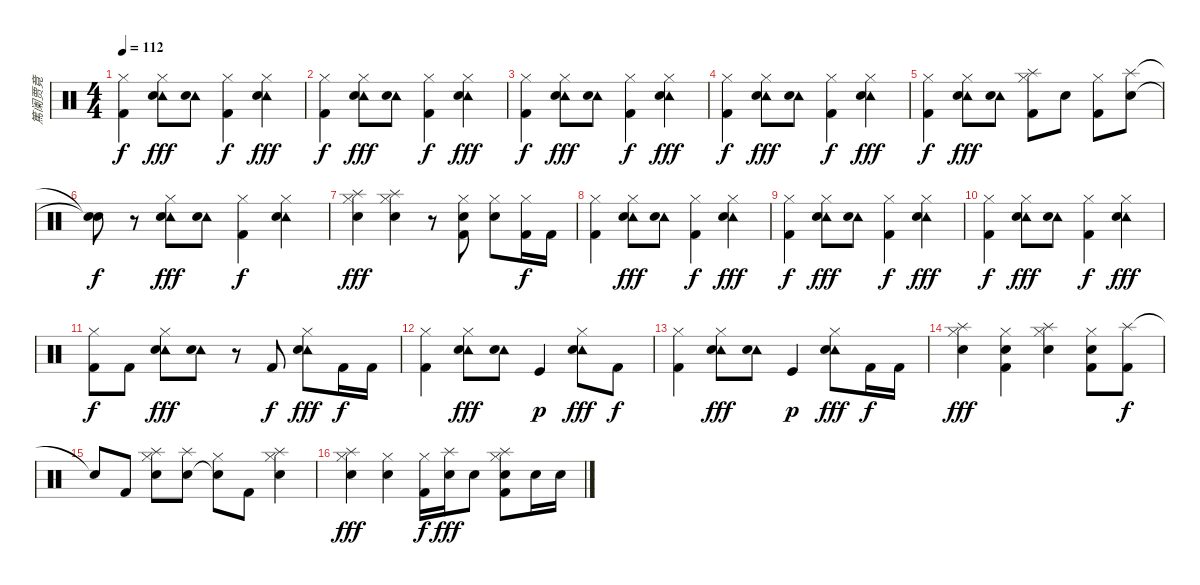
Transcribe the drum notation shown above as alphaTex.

\track ("篤阑贾竟" "篤阑贾竟") {instrument percussion}
\staff {score}
\articulation defaults
\ts (4 4)
\tempo 112
\clef neutral
\ks c
("Hi-Hat (closed)" "Kick (hit) 2").4{dy f} ("Hi-Hat (closed)" "Tambourine (hit)" "Electric Snare (hit)").8{dy fff} ("Tambourine (hit)" "Electric Snare (hit)").8 ("Hi-Hat (closed)" "Kick (hit) 2").4{dy f} ("Hi-Hat (closed)" "Tambourine (hit)" "Electric Snare (hit)").4{dy fff} |
("Hi-Hat (closed)" "Kick (hit) 2").4{dy f} ("Hi-Hat (closed)" "Tambourine (hit)" "Electric Snare (hit)").8{dy fff} ("Tambourine (hit)" "Electric Snare (hit)").8 ("Hi-Hat (closed)" "Kick (hit) 2").4{dy f} ("Hi-Hat (closed)" "Tambourine (hit)" "Electric Snare (hit)").4{dy fff} |
("Hi-Hat (closed)" "Kick (hit) 2").4{dy f} ("Hi-Hat (closed)" "Tambourine (hit)" "Electric Snare (hit)").8{dy fff} ("Tambourine (hit)" "Electric Snare (hit)").8 ("Hi-Hat (closed)" "Kick (hit) 2").4{dy f} ("Hi-Hat (closed)" "Tambourine (hit)" "Electric Snare (hit)").4{dy fff} |
("Hi-Hat (closed)" "Kick (hit) 2").4{dy f} ("Hi-Hat (closed)" "Tambourine (hit)" "Electric Snare (hit)").8{dy fff} ("Tambourine (hit)" "Electric Snare (hit)").8 ("Hi-Hat (closed)" "Kick (hit) 2").4{dy f} ("Hi-Hat (closed)" "Tambourine (hit)" "Electric Snare (hit)").4{dy fff} |
("Hi-Hat (closed)" "Kick (hit) 2").4{dy f} ("Hi-Hat (closed)" "Tambourine (hit)" "Electric Snare (hit)").8{dy fff} ("Tambourine (hit)" "Electric Snare (hit)").8 ("Hi-Hat (closed)" "Splash (hit)" "Kick (hit) 2").8 "Electric Snare (hit)".8 ("Hi-Hat (closed)" "Kick (hit) 2").8 ("Splash (hit)" "Electric Snare (hit)").8 |
("Snare (hit)"{t} "Snare (hit)"{t}).8{dy f} r.8 ("Hi-Hat (closed)" "Tambourine (hit)" "Electric Snare (hit)").8{dy fff} ("Tambourine (hit)" "Electric Snare (hit)").8 ("Hi-Hat (closed)" "Kick (hit) 2").4{dy f} ("Hi-Hat (closed)" "Tambourine (hit)" "Electric Snare (hit)").4 |
("Hi-Hat (closed)" "Splash (hit)" "Electric Snare (hit)").4{dy fff} ("Hi-Hat (closed)" "Splash (hit)" "Electric Snare (hit)").4 r.8 ("Hi-Hat (closed)" "Electric Snare (hit)" "Kick (hit) 2").8 ("Hi-Hat (closed)" "Electric Snare (hit)").8 ("Hi-Hat (closed)" "Kick (hit) 2").16{dy f} "Kick (hit) 2".16 |
("Hi-Hat (closed)" "Kick (hit) 2").4 ("Hi-Hat (closed)" "Tambourine (hit)" "Electric Snare (hit)").8{dy fff} ("Tambourine (hit)" "Electric Snare (hit)").8 ("Hi-Hat (closed)" "Kick (hit) 2").4{dy f} ("Hi-Hat (closed)" "Tambourine (hit)" "Electric Snare (hit)").4{dy fff} |
("Hi-Hat (closed)" "Kick (hit) 2").4{dy f} ("Hi-Hat (closed)" "Tambourine (hit)" "Electric Snare (hit)").8{dy fff} ("Tambourine (hit)" "Electric Snare (hit)").8 ("Hi-Hat (closed)" "Kick (hit) 2").4{dy f} ("Hi-Hat (closed)" "Tambourine (hit)" "Electric Snare (hit)").4{dy fff} |
("Hi-Hat (closed)" "Kick (hit) 2").4{dy f} ("Hi-Hat (closed)" "Tambourine (hit)" "Electric Snare (hit)").8{dy fff} ("Tambourine (hit)" "Electric Snare (hit)").8 ("Hi-Hat (closed)" "Kick (hit) 2").4{dy f} ("Hi-Hat (closed)" "Tambourine (hit)" "Electric Snare (hit)").4{dy fff} |
("Hi-Hat (closed)" "Kick (hit) 2").8{dy f} "Kick (hit) 2".8 ("Hi-Hat (closed)" "Tambourine (hit)" "Electric Snare (hit)").8{dy fff} ("Tambourine (hit)" "Electric Snare (hit)").8 r.8 "Kick (hit) 2".8{dy f} ("Hi-Hat (closed)" "Tambourine (hit)" "Electric Snare (hit)").8{dy fff} "Kick (hit) 2".16{dy f} "Kick (hit) 2".16 |
("Hi-Hat (closed)" "Kick (hit) 2").4 ("Hi-Hat (closed)" "Tambourine (hit)" "Electric Snare (hit)").8{dy fff} ("Tambourine (hit)" "Electric Snare (hit)").8 "Kick (hit)".4{dy p} ("Hi-Hat (closed)" "Tambourine (hit)" "Electric Snare (hit)").8{dy fff} "Kick (hit) 2".8{dy f} |
("Hi-Hat (closed)" "Kick (hit) 2").4 ("Hi-Hat (closed)" "Tambourine (hit)" "Electric Snare (hit)").8{dy fff} ("Tambourine (hit)" "Electric Snare (hit)").8 "Kick (hit)".4{dy p} ("Hi-Hat (closed)" "Tambourine (hit)" "Electric Snare (hit)").8{dy fff} "Kick (hit) 2".16{dy f} "Kick (hit) 2".16 |
("Hi-Hat (closed)" "Splash (hit)" "Electric Snare (hit)").4{dy fff} ("Hi-Hat (closed)" "Electric Snare (hit)" "Kick (hit) 2").4 ("Hi-Hat (closed)" "Splash (hit)" "Electric Snare (hit)").4 ("Hi-Hat (closed)" "Electric Snare (hit)" "Kick (hit) 2").8 ("Splash (hit)" "Kick (hit) 2").8{dy f} |
"Snare (hit)"{t}.8 "Kick (hit) 2".8 ("Hi-Hat (closed)" "Splash (hit)" "Electric Snare (hit)").8 ("Splash (hit)" "Electric Snare (hit)").8 ("Hi-Hat (closed)" "Snare (hit)"{t}).8 "Kick (hit) 2".8 ("Hi-Hat (closed)" "Splash (hit)" "Electric Snare (hit)").4 |
("Hi-Hat (closed)" "Splash (hit)" "Electric Snare (hit)").4{dy fff} ("Hi-Hat (closed)" "Electric Snare (hit)").4 ("Hi-Hat (closed)" "Kick (hit) 2").16{dy f} ("Splash (hit)" "Electric Snare (hit)").16{dy fff} "Electric Snare (hit)".8 ("Hi-Hat (closed)" "Splash (hit)" "Electric Snare (hit)" "Kick (hit) 2").8 "Electric Snare (hit)".16 "Electric Snare (hit)".16
